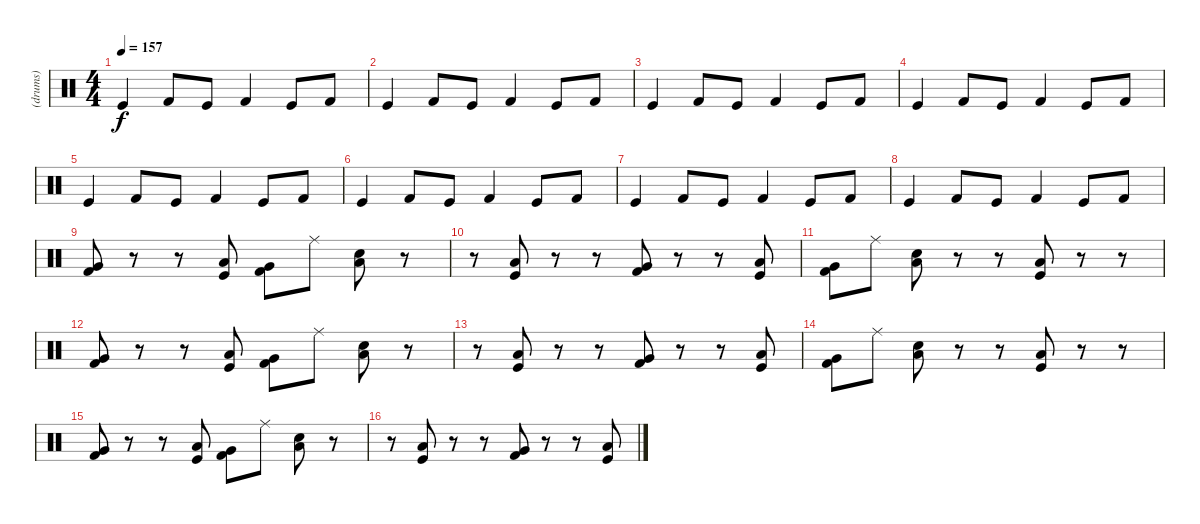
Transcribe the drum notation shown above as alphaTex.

\track ("(drums)" "(drums)") {instrument percussion}
\staff {score}
\articulation defaults
\ts (4 4)
\tempo 157
\clef neutral
\ks c "Kick (hit)".4{dy f} "Kick (hit) 2".8 "Kick (hit)".8 "Kick (hit) 2".4 "Kick (hit)".8 "Kick (hit) 2".8
|
"Kick (hit)".4 "Kick (hit) 2".8 "Kick (hit)".8 "Kick (hit) 2".4 "Kick (hit)".8 "Kick (hit) 2".8 |
"Kick (hit)".4 "Kick (hit) 2".8 "Kick (hit)".8 "Kick (hit) 2".4 "Kick (hit)".8 "Kick (hit) 2".8 |
"Kick (hit)".4 "Kick (hit) 2".8 "Kick (hit)".8 "Kick (hit) 2".4 "Kick (hit)".8 "Kick (hit) 2".8 |
"Kick (hit)".4 "Kick (hit) 2".8 "Kick (hit)".8 "Kick (hit) 2".4 "Kick (hit)".8 "Kick (hit) 2".8 |
"Kick (hit)".4 "Kick (hit) 2".8 "Kick (hit)".8 "Kick (hit) 2".4 "Kick (hit)".8 "Kick (hit) 2".8 |
"Kick (hit)".4 "Kick (hit) 2".8 "Kick (hit)".8 "Kick (hit) 2".4 "Kick (hit)".8 "Kick (hit) 2".8 |
"Kick (hit)".4 "Kick (hit) 2".8 "Kick (hit)".8 "Kick (hit) 2".4 "Kick (hit)".8 "Kick (hit) 2".8 |
("Kick (hit) 2" "Very Low Tom (hit)").8 r.8 r.8 ("Kick (hit)" "Low Tom (hit)").8 ("Kick (hit) 2" "Very Low Tom (hit)").8 "Ride (middle)".8 ("Snare (hit) 2" "Low Floor Tom (hit)").8 r.8 |
r.8 ("Kick (hit)" "Low Tom (hit)").8 r.8 r.8 ("Kick (hit) 2" "Very Low Tom (hit)").8 r.8 r.8 ("Kick (hit)" "Low Tom (hit)").8 |
("Kick (hit) 2" "Very Low Tom (hit)").8 "Ride (middle)".8 ("Snare (hit) 2" "Low Floor Tom (hit)").8 r.8 r.8 ("Kick (hit)" "Low Tom (hit)").8 r.8 r.8 |
("Kick (hit) 2" "Very Low Tom (hit)").8 r.8 r.8 ("Kick (hit)" "Low Tom (hit)").8 ("Kick (hit) 2" "Very Low Tom (hit)").8 "Ride (middle)".8 ("Snare (hit) 2" "Low Floor Tom (hit)").8 r.8 |
r.8 ("Kick (hit)" "Low Tom (hit)").8 r.8 r.8 ("Kick (hit) 2" "Very Low Tom (hit)").8 r.8 r.8 ("Kick (hit)" "Low Tom (hit)").8 |
("Kick (hit) 2" "Very Low Tom (hit)").8 "Ride (middle)".8 ("Snare (hit) 2" "Low Floor Tom (hit)").8 r.8 r.8 ("Kick (hit)" "Low Tom (hit)").8 r.8 r.8 |
("Kick (hit) 2" "Very Low Tom (hit)").8 r.8 r.8 ("Kick (hit)" "Low Tom (hit)").8 ("Kick (hit) 2" "Very Low Tom (hit)").8 "Ride (middle)".8 ("Snare (hit) 2" "Low Floor Tom (hit)").8 r.8 |
r.8 ("Kick (hit)" "Low Tom (hit)").8 r.8 r.8 ("Kick (hit) 2" "Very Low Tom (hit)").8 r.8 r.8 ("Kick (hit)" "Low Tom (hit)").8
